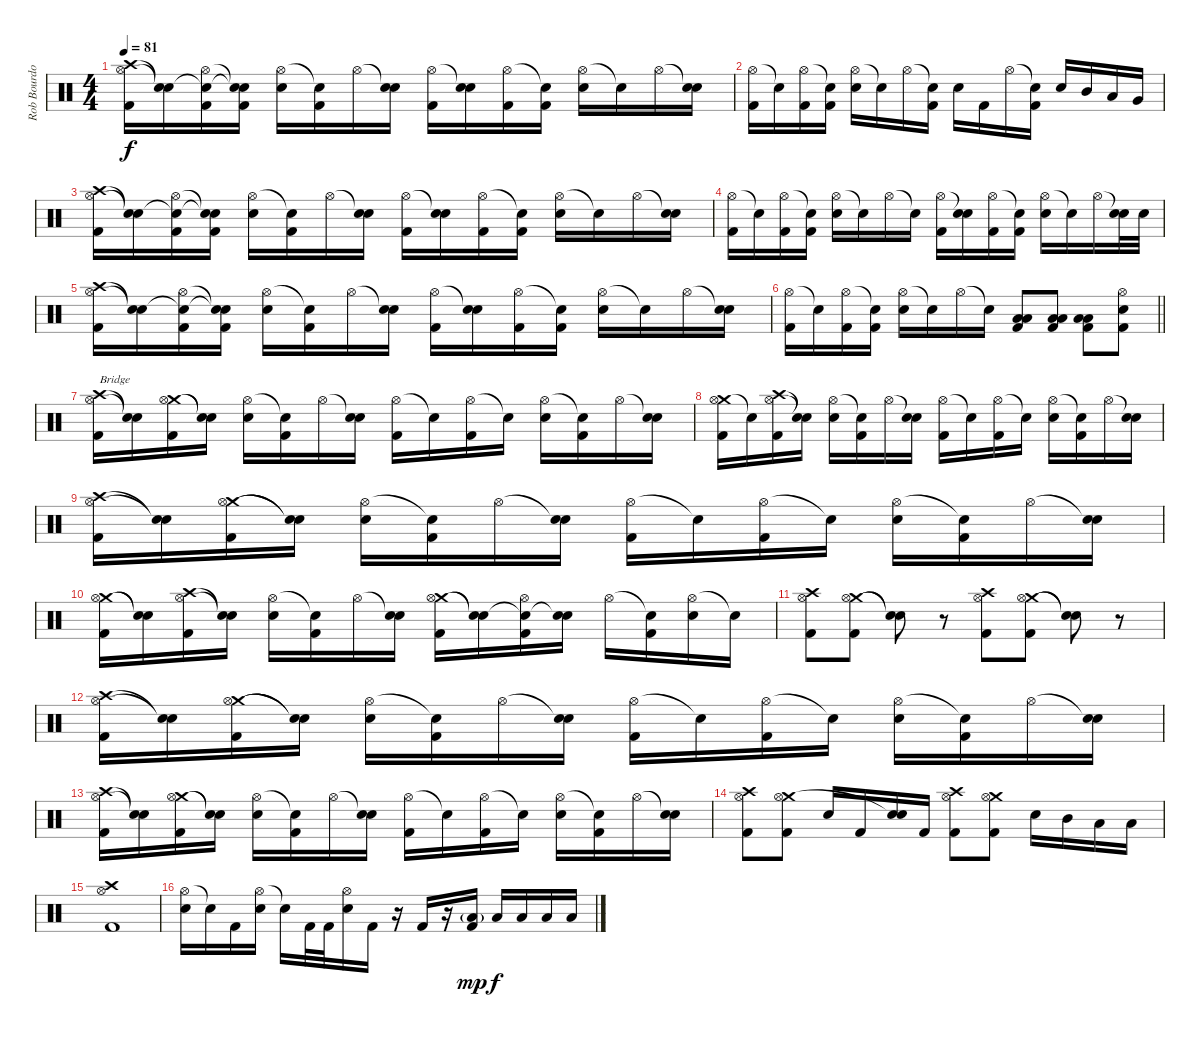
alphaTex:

\track ("Rob Bourdon - Drums" "Rob Bourdo") {instrument percussion}
\staff {score}
\articulation defaults
\ts (4 4)
\tempo 81
\clef neutral
\ks c
("Crash high (hit)" "Hi-Hat (open)" "Kick (hit) 2").16{dy f} ("Snare (hit)"{t} "Snare (hit)"{t}).16 ("Snare (hit)"{t} "Hi-Hat (open)" "Kick (hit) 2").16 ("Snare (hit)"{t} "Snare (hit)"{t} "Kick (hit) 2").16 ("Hi-Hat (open)" "Electric Snare (hit)").16 ("Snare (hit)"{t} "Kick (hit) 2").16 "Hi-Hat (open)".16 ("Snare (hit)"{t} "Electric Snare (hit)").16 ("Hi-Hat (open)" "Kick (hit) 2").16 ("Snare (hit)"{t} "Electric Snare (hit)").16 ("Hi-Hat (open)" "Kick (hit) 2").16 ("Snare (hit)"{t} "Kick (hit) 2").16 ("Hi-Hat (open)" "Electric Snare (hit)").16 "Snare (hit)"{t}.16 "Hi-Hat (open)".16 ("Snare (hit)"{t} "Electric Snare (hit)").16 |
("Hi-Hat (open)" "Kick (hit) 2").16 "Snare (hit)"{t}.16 ("Hi-Hat (open)" "Kick (hit) 2").16 ("Snare (hit)"{t} "Kick (hit) 2").16 ("Hi-Hat (open)" "Electric Snare (hit)").16 "Snare (hit)"{t}.16 "Hi-Hat (open)".16 ("Snare (hit)"{t} "Kick (hit) 2").16 "Electric Snare (hit)".16 "Kick (hit) 2".16 "Hi-Hat (open)".16 ("Snare (hit)"{t} "Kick (hit) 2").16 "Electric Snare (hit)".16 "Mid Tom (hit)".16 "Low Tom (hit)".16 "Very Low Tom (hit)".16 |
("Crash high (hit)" "Hi-Hat (open)" "Kick (hit) 2").16 ("Snare (hit)"{t} "Snare (hit)"{t}).16 ("Snare (hit)"{t} "Hi-Hat (open)" "Kick (hit) 2").16 ("Snare (hit)"{t} "Snare (hit)"{t} "Kick (hit) 2").16 ("Hi-Hat (open)" "Electric Snare (hit)").16 ("Snare (hit)"{t} "Kick (hit) 2").16 "Hi-Hat (open)".16 ("Snare (hit)"{t} "Electric Snare (hit)").16 ("Hi-Hat (open)" "Kick (hit) 2").16 ("Snare (hit)"{t} "Electric Snare (hit)").16 ("Hi-Hat (open)" "Kick (hit) 2").16 ("Snare (hit)"{t} "Kick (hit) 2").16 ("Hi-Hat (open)" "Electric Snare (hit)").16 "Snare (hit)"{t}.16 "Hi-Hat (open)".16 ("Snare (hit)"{t} "Electric Snare (hit)").16 |
("Hi-Hat (open)" "Kick (hit) 2").16 "Snare (hit)"{t}.16 ("Hi-Hat (open)" "Kick (hit) 2").16 ("Snare (hit)"{t} "Kick (hit) 2").16 ("Hi-Hat (open)" "Electric Snare (hit)").16 "Snare (hit)"{t}.16 "Hi-Hat (open)".16 "Snare (hit)"{t}.16 ("Hi-Hat (open)" "Kick (hit) 2").16 ("Snare (hit)"{t} "Electric Snare (hit)").16 ("Hi-Hat (open)" "Kick (hit) 2").16 ("Snare (hit)"{t} "Kick (hit) 2").16 ("Hi-Hat (open)" "Electric Snare (hit)").16 "Snare (hit)"{t}.16 "Hi-Hat (open)".16 ("Snare (hit)"{t} "Electric Snare (hit)").32 "Electric Snare (hit)".32 |
("Crash high (hit)" "Hi-Hat (open)" "Kick (hit) 2").16 ("Snare (hit)"{t} "Snare (hit)"{t}).16 ("Snare (hit)"{t} "Hi-Hat (open)" "Kick (hit) 2").16 ("Snare (hit)"{t} "Snare (hit)"{t} "Kick (hit) 2").16 ("Hi-Hat (open)" "Electric Snare (hit)").16 ("Snare (hit)"{t} "Kick (hit) 2").16 "Hi-Hat (open)".16 ("Snare (hit)"{t} "Electric Snare (hit)").16 ("Hi-Hat (open)" "Kick (hit) 2").16 ("Snare (hit)"{t} "Electric Snare (hit)").16 ("Hi-Hat (open)" "Kick (hit) 2").16 ("Snare (hit)"{t} "Kick (hit) 2").16 ("Hi-Hat (open)" "Electric Snare (hit)").16 "Snare (hit)"{t}.16 "Hi-Hat (open)".16 ("Snare (hit)"{t} "Electric Snare (hit)").16 |
\barLineRight lightlight
("Hi-Hat (open)" "Kick (hit) 2").16 "Snare (hit)"{t}.16 ("Hi-Hat (open)" "Kick (hit) 2").16 ("Snare (hit)"{t} "Kick (hit) 2").16 ("Hi-Hat (open)" "Electric Snare (hit)").16 "Snare (hit)"{t}.16 "Hi-Hat (open)".16 "Snare (hit)"{t}.16 ("Low Floor Tom (hit)" "Low Tom (hit)" "Kick (hit) 2").8 ("Low Floor Tom (hit)" "Low Tom (hit)" "Kick (hit) 2").8 ("Low Floor Tom (hit)" "Low Tom (hit)" "Kick (hit) 2").8 ("Hi-Hat (open)" "Electric Snare (hit)" "Kick (hit) 2").8 |
("Crash high (hit)" "Hi-Hat (open)" "Kick (hit) 2").16{txt "Bridge"} ("Snare (hit)"{t} "Snare (hit)"{t}).16 ("Crash medium (hit)" "Hi-Hat (open)" "Kick (hit) 2").16 ("Snare (hit)"{t} "Snare (hit)"{t}).16 ("Hi-Hat (open)" "Electric Snare (hit)").16 ("Snare (hit)"{t} "Kick (hit) 2").16 "Hi-Hat (open)".16 ("Snare (hit)"{t} "Electric Snare (hit)").16 ("Hi-Hat (open)" "Kick (hit) 2").16 "Snare (hit)"{t}.16 ("Hi-Hat (open)" "Kick (hit) 2").16 "Snare (hit)"{t}.16 ("Hi-Hat (open)" "Electric Snare (hit)").16 ("Snare (hit)"{t} "Kick (hit) 2").16 "Hi-Hat (open)".16 ("Snare (hit)"{t} "Electric Snare (hit)").16 |
("Crash medium (hit)" "Hi-Hat (open)" "Kick (hit) 2").16 "Snare (hit)"{t}.16 ("Crash high (hit)" "Hi-Hat (open)" "Kick (hit) 2").16 ("Snare (hit)"{t} "Snare (hit)"{t}).16 ("Hi-Hat (open)" "Electric Snare (hit)").16 ("Snare (hit)"{t} "Kick (hit) 2").16 "Hi-Hat (open)".16 ("Snare (hit)"{t} "Electric Snare (hit)").16 ("Hi-Hat (open)" "Kick (hit) 2").16 "Snare (hit)"{t}.16 ("Hi-Hat (open)" "Kick (hit) 2").16 "Snare (hit)"{t}.16 ("Hi-Hat (open)" "Electric Snare (hit)").16 ("Snare (hit)"{t} "Kick (hit) 2").16 "Hi-Hat (open)".16 ("Snare (hit)"{t} "Electric Snare (hit)").16 |
("Crash high (hit)" "Hi-Hat (open)" "Kick (hit) 2").16 ("Snare (hit)"{t} "Snare (hit)"{t}).16 ("Crash medium (hit)" "Hi-Hat (open)" "Kick (hit) 2").16 ("Snare (hit)"{t} "Snare (hit)"{t}).16 ("Hi-Hat (open)" "Electric Snare (hit)").16 ("Snare (hit)"{t} "Kick (hit) 2").16 "Hi-Hat (open)".16 ("Snare (hit)"{t} "Electric Snare (hit)").16 ("Hi-Hat (open)" "Kick (hit) 2").16 "Snare (hit)"{t}.16 ("Hi-Hat (open)" "Kick (hit) 2").16 "Snare (hit)"{t}.16 ("Hi-Hat (open)" "Electric Snare (hit)").16 ("Snare (hit)"{t} "Kick (hit) 2").16 "Hi-Hat (open)".16 ("Snare (hit)"{t} "Electric Snare (hit)").16 |
("Crash medium (hit)" "Hi-Hat (open)" "Kick (hit) 2").16 ("Snare (hit)"{t} "Snare (hit)"{t}).16 ("Crash high (hit)" "Hi-Hat (open)" "Kick (hit) 2").16 ("Snare (hit)"{t} "Snare (hit)"{t}).16 ("Hi-Hat (open)" "Electric Snare (hit)").16 ("Snare (hit)"{t} "Kick (hit) 2").16 "Hi-Hat (open)".16 ("Snare (hit)"{t} "Electric Snare (hit)").16 ("Crash medium (hit)" "Hi-Hat (open)" "Kick (hit) 2").16 ("Snare (hit)"{t} "Snare (hit)"{t}).16 ("Snare (hit)"{t} "Hi-Hat (open)" "Kick (hit) 2").16 ("Snare (hit)"{t} "Electric Snare (hit)").16 "Hi-Hat (open)".16 ("Snare (hit)"{t} "Kick (hit) 2").16 ("Hi-Hat (open)" "Electric Snare (hit)").16 "Snare (hit)"{t}.16 |
("Crash high (hit)" "Hi-Hat (open)" "Kick (hit) 2").8 ("Crash medium (hit)" "Hi-Hat (open)" "Kick (hit) 2").8 ("Snare (hit)"{t} "Snare (hit)"{t}).8 r.8 ("Crash high (hit)" "Hi-Hat (open)" "Kick (hit) 2").8 ("Crash medium (hit)" "Hi-Hat (open)" "Kick (hit) 2").8 ("Snare (hit)"{t} "Snare (hit)"{t}).8 r.8 |
("Crash high (hit)" "Hi-Hat (open)" "Kick (hit) 2").16 ("Snare (hit)"{t} "Snare (hit)"{t}).16 ("Crash medium (hit)" "Hi-Hat (open)" "Kick (hit) 2").16 ("Snare (hit)"{t} "Snare (hit)"{t}).16 ("Hi-Hat (open)" "Electric Snare (hit)").16 ("Snare (hit)"{t} "Kick (hit) 2").16 "Hi-Hat (open)".16 ("Snare (hit)"{t} "Electric Snare (hit)").16 ("Hi-Hat (open)" "Kick (hit) 2").16 "Snare (hit)"{t}.16 ("Hi-Hat (open)" "Kick (hit) 2").16 "Snare (hit)"{t}.16 ("Hi-Hat (open)" "Electric Snare (hit)").16 ("Snare (hit)"{t} "Kick (hit) 2").16 "Hi-Hat (open)".16 ("Snare (hit)"{t} "Electric Snare (hit)").16 |
("Crash high (hit)" "Hi-Hat (open)" "Kick (hit) 2").16 ("Snare (hit)"{t} "Snare (hit)"{t}).16 ("Crash medium (hit)" "Hi-Hat (open)" "Kick (hit) 2").16 ("Snare (hit)"{t} "Snare (hit)"{t}).16 ("Hi-Hat (open)" "Electric Snare (hit)").16 ("Snare (hit)"{t} "Kick (hit) 2").16 "Hi-Hat (open)".16 ("Snare (hit)"{t} "Electric Snare (hit)").16 ("Hi-Hat (open)" "Kick (hit) 2").16 "Snare (hit)"{t}.16 ("Hi-Hat (open)" "Kick (hit) 2").16 "Snare (hit)"{t}.16 ("Hi-Hat (open)" "Electric Snare (hit)").16 ("Snare (hit)"{t} "Kick (hit) 2").16 "Hi-Hat (open)".16 ("Snare (hit)"{t} "Electric Snare (hit)").16 |
("Crash high (hit)" "Hi-Hat (open)" "Kick (hit) 2").8 ("Crash medium (hit)" "Hi-Hat (open)" "Kick (hit) 2").8 "Electric Snare (hit)".16 "Kick (hit) 2".16 ("Electric Snare (hit)" "Snare (hit)"{t}).16 "Kick (hit) 2".16 ("Crash high (hit)" "Hi-Hat (open)" "Kick (hit) 2").8 ("Crash medium (hit)" "Hi-Hat (open)" "Kick (hit) 2").8 "Electric Snare (hit)".16 "Mid Tom (hit)".16 "Low Tom (hit)".16 "Low Floor Tom (hit)".16 |
("Crash high (hit)" "Hi-Hat (open)" "Kick (hit) 2").1 |
("Hi-Hat (open)" "Electric Snare (hit)").16 "Snare (hit)"{t}.16 "Kick (hit) 2".16 ("Hi-Hat (open)" "Electric Snare (hit)").16 "Snare (hit)"{t}.16 "Kick (hit) 2".32 "Kick (hit) 2".32 ("Hi-Hat (open)" "Electric Snare (hit)").16 "Kick (hit) 2".16 r.16 "Kick (hit) 2".16 r.16 ("Low Tom (hit)"{g} "Kick (hit) 2").16{dy mp} "Low Tom (hit)".16{dy f} "Low Tom (hit)".16 "Low Tom (hit)".16 "Low Tom (hit)".16
